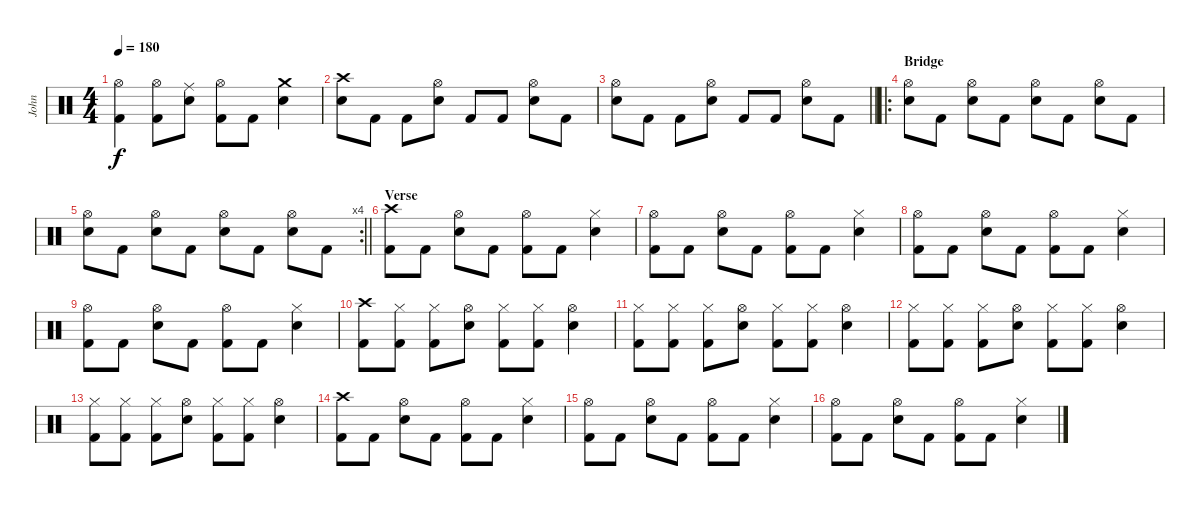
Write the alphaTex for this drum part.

\track ("John" "John") {instrument percussion}
\staff {score}
\articulation defaults
\ts (4 4)
\tempo 180
\clef neutral
\ks c
("Hi-Hat (open)" "Kick (hit) 2").4{dy f} ("Hi-Hat (open)" "Kick (hit) 2").8 ("Ride (middle)" "Snare (hit) 2").8 ("Hi-Hat (open)" "Kick (hit) 2").8 "Kick (hit) 2".8 ("Crash medium (hit)" "Snare (hit) 2").4 |
("Crash high (hit)" "Snare (hit) 2").8 "Kick (hit) 2".8 "Kick (hit) 2".8 ("Hi-Hat (open)" "Snare (hit) 2").8 "Kick (hit) 2".8 "Kick (hit) 2".8 ("Hi-Hat (open)" "Snare (hit) 2").8 "Kick (hit) 2".8 |
\barLineRight lightlight
("Hi-Hat (open)" "Snare (hit) 2").8 "Kick (hit) 2".8 "Kick (hit) 2".8 ("Hi-Hat (open)" "Snare (hit) 2").8 "Kick (hit) 2".8 "Kick (hit) 2".8 ("Hi-Hat (open)" "Snare (hit) 2").8 "Kick (hit) 2".8 |
\ro
\section ("" "Bridge")
("Hi-Hat (open)" "Snare (hit) 2").8 "Kick (hit) 2".8 ("Hi-Hat (open)" "Snare (hit) 2").8 "Kick (hit) 2".8 ("Hi-Hat (open)" "Snare (hit) 2").8 "Kick (hit) 2".8 ("Hi-Hat (open)" "Snare (hit) 2").8 "Kick (hit) 2".8 |
\rc 4
\barLineRight lightlight
("Hi-Hat (open)" "Snare (hit) 2").8 "Kick (hit) 2".8 ("Hi-Hat (open)" "Snare (hit) 2").8 "Kick (hit) 2".8 ("Hi-Hat (open)" "Snare (hit) 2").8 "Kick (hit) 2".8 ("Hi-Hat (open)" "Snare (hit) 2").8 "Kick (hit) 2".8 |
\section ("" "Verse")
("Crash high (hit)" "Kick (hit) 2").8 "Kick (hit) 2".8 ("Hi-Hat (open)" "Snare (hit) 2").8 "Kick (hit) 2".8 ("Hi-Hat (open)" "Kick (hit) 2").8 "Kick (hit) 2".8 ("Hi-Hat (closed)" "Snare (hit) 2").4 |
("Hi-Hat (open)" "Kick (hit) 2").8 "Kick (hit) 2".8 ("Hi-Hat (open)" "Snare (hit) 2").8 "Kick (hit) 2".8 ("Hi-Hat (open)" "Kick (hit) 2").8 "Kick (hit) 2".8 ("Hi-Hat (closed)" "Snare (hit) 2").4 |
("Hi-Hat (open)" "Kick (hit) 2").8 "Kick (hit) 2".8 ("Hi-Hat (open)" "Snare (hit) 2").8 "Kick (hit) 2".8 ("Hi-Hat (open)" "Kick (hit) 2").8 "Kick (hit) 2".8 ("Hi-Hat (closed)" "Snare (hit) 2").4 |
("Hi-Hat (open)" "Kick (hit) 2").8 "Kick (hit) 2".8 ("Hi-Hat (open)" "Snare (hit) 2").8 "Kick (hit) 2".8 ("Hi-Hat (open)" "Kick (hit) 2").8 "Kick (hit) 2".8 ("Hi-Hat (closed)" "Snare (hit) 2").4 |
("Crash high (hit)" "Kick (hit) 2").8 ("Hi-Hat (closed)" "Kick (hit) 2").8 ("Hi-Hat (closed)" "Kick (hit) 2").8 ("Hi-Hat (open)" "Snare (hit) 2").8 ("Hi-Hat (closed)" "Kick (hit) 2").8 ("Hi-Hat (closed)" "Kick (hit) 2").8 ("Hi-Hat (open)" "Snare (hit) 2").4 |
("Hi-Hat (closed)" "Kick (hit) 2").8 ("Hi-Hat (closed)" "Kick (hit) 2").8 ("Hi-Hat (closed)" "Kick (hit) 2").8 ("Hi-Hat (open)" "Snare (hit) 2").8 ("Hi-Hat (closed)" "Kick (hit) 2").8 ("Hi-Hat (closed)" "Kick (hit) 2").8 ("Hi-Hat (open)" "Snare (hit) 2").4 |
("Hi-Hat (closed)" "Kick (hit) 2").8 ("Hi-Hat (closed)" "Kick (hit) 2").8 ("Hi-Hat (closed)" "Kick (hit) 2").8 ("Hi-Hat (open)" "Snare (hit) 2").8 ("Hi-Hat (closed)" "Kick (hit) 2").8 ("Hi-Hat (closed)" "Kick (hit) 2").8 ("Hi-Hat (open)" "Snare (hit) 2").4 |
("Hi-Hat (closed)" "Kick (hit) 2").8 ("Hi-Hat (closed)" "Kick (hit) 2").8 ("Hi-Hat (closed)" "Kick (hit) 2").8 ("Hi-Hat (open)" "Snare (hit) 2").8 ("Hi-Hat (closed)" "Kick (hit) 2").8 ("Hi-Hat (closed)" "Kick (hit) 2").8 ("Hi-Hat (open)" "Snare (hit) 2").4 |
("Crash high (hit)" "Kick (hit) 2").8 "Kick (hit) 2".8 ("Hi-Hat (open)" "Snare (hit) 2").8 "Kick (hit) 2".8 ("Hi-Hat (open)" "Kick (hit) 2").8 "Kick (hit) 2".8 ("Hi-Hat (closed)" "Snare (hit) 2").4 |
("Hi-Hat (open)" "Kick (hit) 2").8 "Kick (hit) 2".8 ("Hi-Hat (open)" "Snare (hit) 2").8 "Kick (hit) 2".8 ("Hi-Hat (open)" "Kick (hit) 2").8 "Kick (hit) 2".8 ("Hi-Hat (closed)" "Snare (hit) 2").4 |
("Hi-Hat (open)" "Kick (hit) 2").8 "Kick (hit) 2".8 ("Hi-Hat (open)" "Snare (hit) 2").8 "Kick (hit) 2".8 ("Hi-Hat (open)" "Kick (hit) 2").8 "Kick (hit) 2".8 ("Hi-Hat (closed)" "Snare (hit) 2").4
